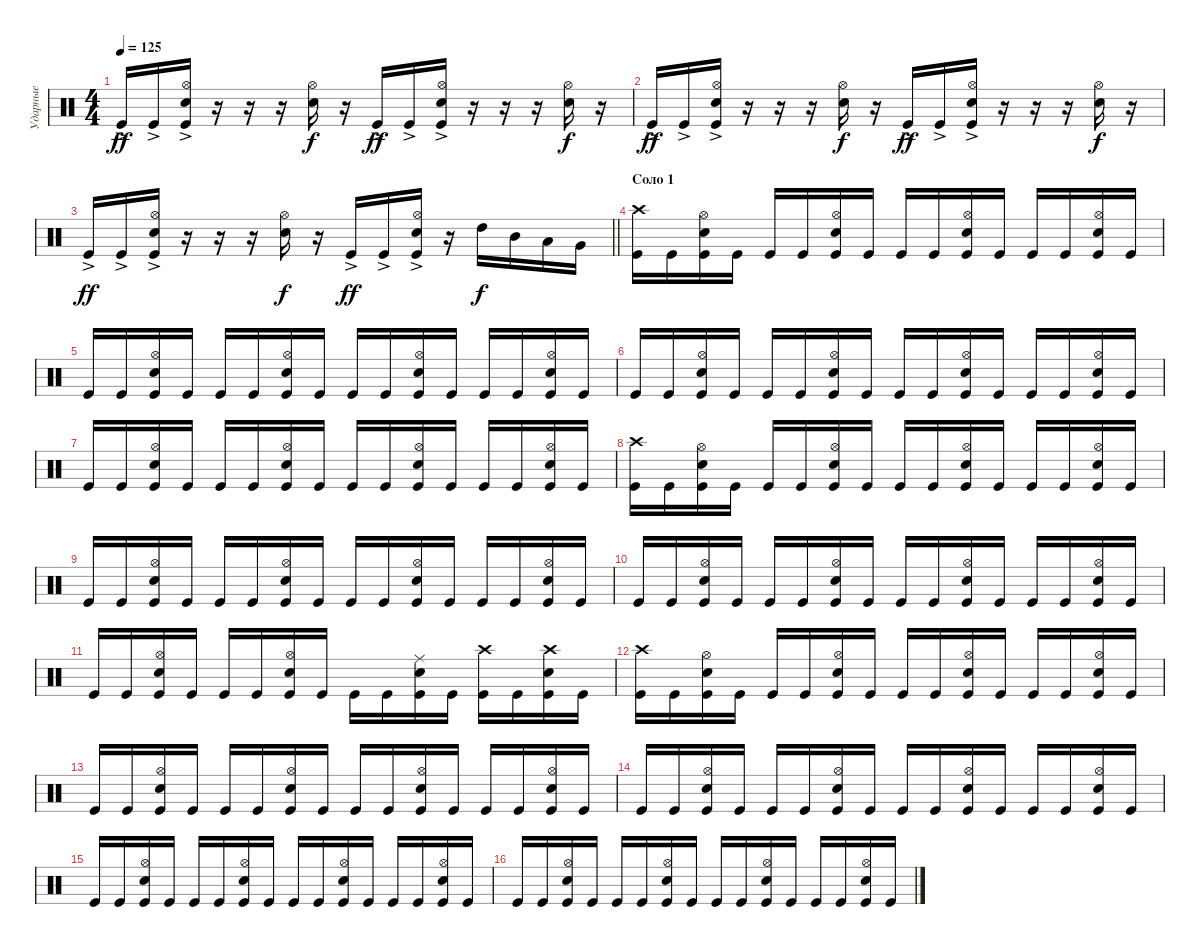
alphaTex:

\track ("Ударные" "Ударные") {instrument percussion}
\staff {score}
\articulation defaults
\ts (4 4)
\tempo 125
\clef neutral
\ks c "Kick (hit)"{ac}.16{dy ff} "Kick (hit)"{ac}.16
("Hi-Hat (open)" "Snare (hit) 2" "Kick (hit)"{ac}).16 r.16 r.16 r.16 ("Hi-Hat (open)" "Snare (hit) 2").16{dy f} r.16 "Kick (hit)"{ac}.16{dy ff} "Kick (hit)"{ac}.16 ("Hi-Hat (open)" "Snare (hit) 2" "Kick (hit)"{ac}).16 r.16 r.16 r.16 ("Hi-Hat (open)" "Snare (hit) 2").16{dy f} r.16 |
"Kick (hit)"{ac}.16{dy ff} "Kick (hit)"{ac}.16 ("Hi-Hat (open)" "Snare (hit) 2" "Kick (hit)"{ac}).16 r.16 r.16 r.16 ("Hi-Hat (open)" "Snare (hit) 2").16{dy f} r.16 "Kick (hit)"{ac}.16{dy ff} "Kick (hit)"{ac}.16 ("Hi-Hat (open)" "Snare (hit) 2" "Kick (hit)"{ac}).16 r.16 r.16 r.16 ("Hi-Hat (open)" "Snare (hit) 2").16{dy f} r.16 |
\barLineRight lightlight "Kick (hit)"{ac}.16{dy ff} "Kick (hit)"{ac}.16
("Hi-Hat (open)" "Snare (hit) 2" "Kick (hit)"{ac}).16 r.16 r.16 r.16 ("Hi-Hat (open)" "Snare (hit) 2").16{dy f} r.16 "Kick (hit)"{ac}.16{dy ff} "Kick (hit)"{ac}.16 ("Hi-Hat (open)" "Snare (hit) 2" "Kick (hit)"{ac}).16 r.16 "High Tom (hit)".16{dy f} "Mid Tom (hit)".16 "Low Tom (hit)".16 "Very Low Tom (hit)".16 |
\section ("" "Соло 1")
("Crash high (hit)" "Kick (hit)").16 "Kick (hit)".16 ("Hi-Hat (open)" "Snare (hit) 2" "Kick (hit)").16 "Kick (hit)".16 "Kick (hit)".16 "Kick (hit)".16 ("Hi-Hat (open)" "Snare (hit) 2" "Kick (hit)").16 "Kick (hit)".16 "Kick (hit)".16 "Kick (hit)".16 ("Hi-Hat (open)" "Snare (hit) 2" "Kick (hit)").16 "Kick (hit)".16 "Kick (hit)".16 "Kick (hit)".16 ("Hi-Hat (open)" "Snare (hit) 2" "Kick (hit)").16 "Kick (hit)".16 |
"Kick (hit)".16 "Kick (hit)".16 ("Hi-Hat (open)" "Snare (hit) 2" "Kick (hit)").16 "Kick (hit)".16 "Kick (hit)".16 "Kick (hit)".16 ("Hi-Hat (open)" "Snare (hit) 2" "Kick (hit)").16 "Kick (hit)".16 "Kick (hit)".16 "Kick (hit)".16 ("Hi-Hat (open)" "Snare (hit) 2" "Kick (hit)").16 "Kick (hit)".16 "Kick (hit)".16 "Kick (hit)".16 ("Hi-Hat (open)" "Snare (hit) 2" "Kick (hit)").16 "Kick (hit)".16 |
"Kick (hit)".16 "Kick (hit)".16 ("Hi-Hat (open)" "Snare (hit) 2" "Kick (hit)").16 "Kick (hit)".16 "Kick (hit)".16 "Kick (hit)".16 ("Hi-Hat (open)" "Snare (hit) 2" "Kick (hit)").16 "Kick (hit)".16 "Kick (hit)".16 "Kick (hit)".16 ("Hi-Hat (open)" "Snare (hit) 2" "Kick (hit)").16 "Kick (hit)".16 "Kick (hit)".16 "Kick (hit)".16 ("Hi-Hat (open)" "Snare (hit) 2" "Kick (hit)").16 "Kick (hit)".16 |
"Kick (hit)".16 "Kick (hit)".16 ("Hi-Hat (open)" "Snare (hit) 2" "Kick (hit)").16 "Kick (hit)".16 "Kick (hit)".16 "Kick (hit)".16 ("Hi-Hat (open)" "Snare (hit) 2" "Kick (hit)").16 "Kick (hit)".16 "Kick (hit)".16 "Kick (hit)".16 ("Hi-Hat (open)" "Snare (hit) 2" "Kick (hit)").16 "Kick (hit)".16 "Kick (hit)".16 "Kick (hit)".16 ("Hi-Hat (open)" "Snare (hit) 2" "Kick (hit)").16 "Kick (hit)".16 |
("Crash high (hit)" "Kick (hit)").16 "Kick (hit)".16 ("Hi-Hat (open)" "Snare (hit) 2" "Kick (hit)").16 "Kick (hit)".16 "Kick (hit)".16 "Kick (hit)".16 ("Hi-Hat (open)" "Snare (hit) 2" "Kick (hit)").16 "Kick (hit)".16 "Kick (hit)".16 "Kick (hit)".16 ("Hi-Hat (open)" "Snare (hit) 2" "Kick (hit)").16 "Kick (hit)".16 "Kick (hit)".16 "Kick (hit)".16 ("Hi-Hat (open)" "Snare (hit) 2" "Kick (hit)").16 "Kick (hit)".16 |
"Kick (hit)".16 "Kick (hit)".16 ("Hi-Hat (open)" "Snare (hit) 2" "Kick (hit)").16 "Kick (hit)".16 "Kick (hit)".16 "Kick (hit)".16 ("Hi-Hat (open)" "Snare (hit) 2" "Kick (hit)").16 "Kick (hit)".16 "Kick (hit)".16 "Kick (hit)".16 ("Hi-Hat (open)" "Snare (hit) 2" "Kick (hit)").16 "Kick (hit)".16 "Kick (hit)".16 "Kick (hit)".16 ("Hi-Hat (open)" "Snare (hit) 2" "Kick (hit)").16 "Kick (hit)".16 |
"Kick (hit)".16 "Kick (hit)".16 ("Hi-Hat (open)" "Snare (hit) 2" "Kick (hit)").16 "Kick (hit)".16 "Kick (hit)".16 "Kick (hit)".16 ("Hi-Hat (open)" "Snare (hit) 2" "Kick (hit)").16 "Kick (hit)".16 "Kick (hit)".16 "Kick (hit)".16 ("Hi-Hat (open)" "Snare (hit) 2" "Kick (hit)").16 "Kick (hit)".16 "Kick (hit)".16 "Kick (hit)".16 ("Hi-Hat (open)" "Snare (hit) 2" "Kick (hit)").16 "Kick (hit)".16 |
"Kick (hit)".16 "Kick (hit)".16 ("Hi-Hat (open)" "Snare (hit) 2" "Kick (hit)").16 "Kick (hit)".16 "Kick (hit)".16 "Kick (hit)".16 ("Hi-Hat (open)" "Snare (hit) 2" "Kick (hit)").16 "Kick (hit)".16 "Kick (hit)".16 "Kick (hit)".16 ("Ride (middle)" "Snare (hit) 2" "Kick (hit)").16 "Kick (hit)".16 ("Crash high (hit)" "Kick (hit)").16 "Kick (hit)".16 ("Crash high (hit)" "Snare (hit) 2" "Kick (hit)").16 "Kick (hit)".16 |
("Crash high (hit)" "Kick (hit)").16 "Kick (hit)".16 ("Hi-Hat (open)" "Snare (hit) 2" "Kick (hit)").16 "Kick (hit)".16 "Kick (hit)".16 "Kick (hit)".16 ("Hi-Hat (open)" "Snare (hit) 2" "Kick (hit)").16 "Kick (hit)".16 "Kick (hit)".16 "Kick (hit)".16 ("Hi-Hat (open)" "Snare (hit) 2" "Kick (hit)").16 "Kick (hit)".16 "Kick (hit)".16 "Kick (hit)".16 ("Hi-Hat (open)" "Snare (hit) 2" "Kick (hit)").16 "Kick (hit)".16 |
"Kick (hit)".16 "Kick (hit)".16 ("Hi-Hat (open)" "Snare (hit) 2" "Kick (hit)").16 "Kick (hit)".16 "Kick (hit)".16 "Kick (hit)".16 ("Hi-Hat (open)" "Snare (hit) 2" "Kick (hit)").16 "Kick (hit)".16 "Kick (hit)".16 "Kick (hit)".16 ("Hi-Hat (open)" "Snare (hit) 2" "Kick (hit)").16 "Kick (hit)".16 "Kick (hit)".16 "Kick (hit)".16 ("Hi-Hat (open)" "Snare (hit) 2" "Kick (hit)").16 "Kick (hit)".16 |
"Kick (hit)".16 "Kick (hit)".16 ("Hi-Hat (open)" "Snare (hit) 2" "Kick (hit)").16 "Kick (hit)".16 "Kick (hit)".16 "Kick (hit)".16 ("Hi-Hat (open)" "Snare (hit) 2" "Kick (hit)").16 "Kick (hit)".16 "Kick (hit)".16 "Kick (hit)".16 ("Hi-Hat (open)" "Snare (hit) 2" "Kick (hit)").16 "Kick (hit)".16 "Kick (hit)".16 "Kick (hit)".16 ("Hi-Hat (open)" "Snare (hit) 2" "Kick (hit)").16 "Kick (hit)".16 |
"Kick (hit)".16 "Kick (hit)".16 ("Hi-Hat (open)" "Snare (hit) 2" "Kick (hit)").16 "Kick (hit)".16 "Kick (hit)".16 "Kick (hit)".16 ("Hi-Hat (open)" "Snare (hit) 2" "Kick (hit)").16 "Kick (hit)".16 "Kick (hit)".16 "Kick (hit)".16 ("Hi-Hat (open)" "Snare (hit) 2" "Kick (hit)").16 "Kick (hit)".16 "Kick (hit)".16 "Kick (hit)".16 ("Hi-Hat (open)" "Snare (hit) 2" "Kick (hit)").16 "Kick (hit)".16 |
"Kick (hit)".16 "Kick (hit)".16 ("Hi-Hat (open)" "Snare (hit) 2" "Kick (hit)").16 "Kick (hit)".16 "Kick (hit)".16 "Kick (hit)".16 ("Hi-Hat (open)" "Snare (hit) 2" "Kick (hit)").16 "Kick (hit)".16 "Kick (hit)".16 "Kick (hit)".16 ("Hi-Hat (open)" "Snare (hit) 2" "Kick (hit)").16 "Kick (hit)".16 "Kick (hit)".16 "Kick (hit)".16 ("Hi-Hat (open)" "Snare (hit) 2" "Kick (hit)").16 "Kick (hit)".16
